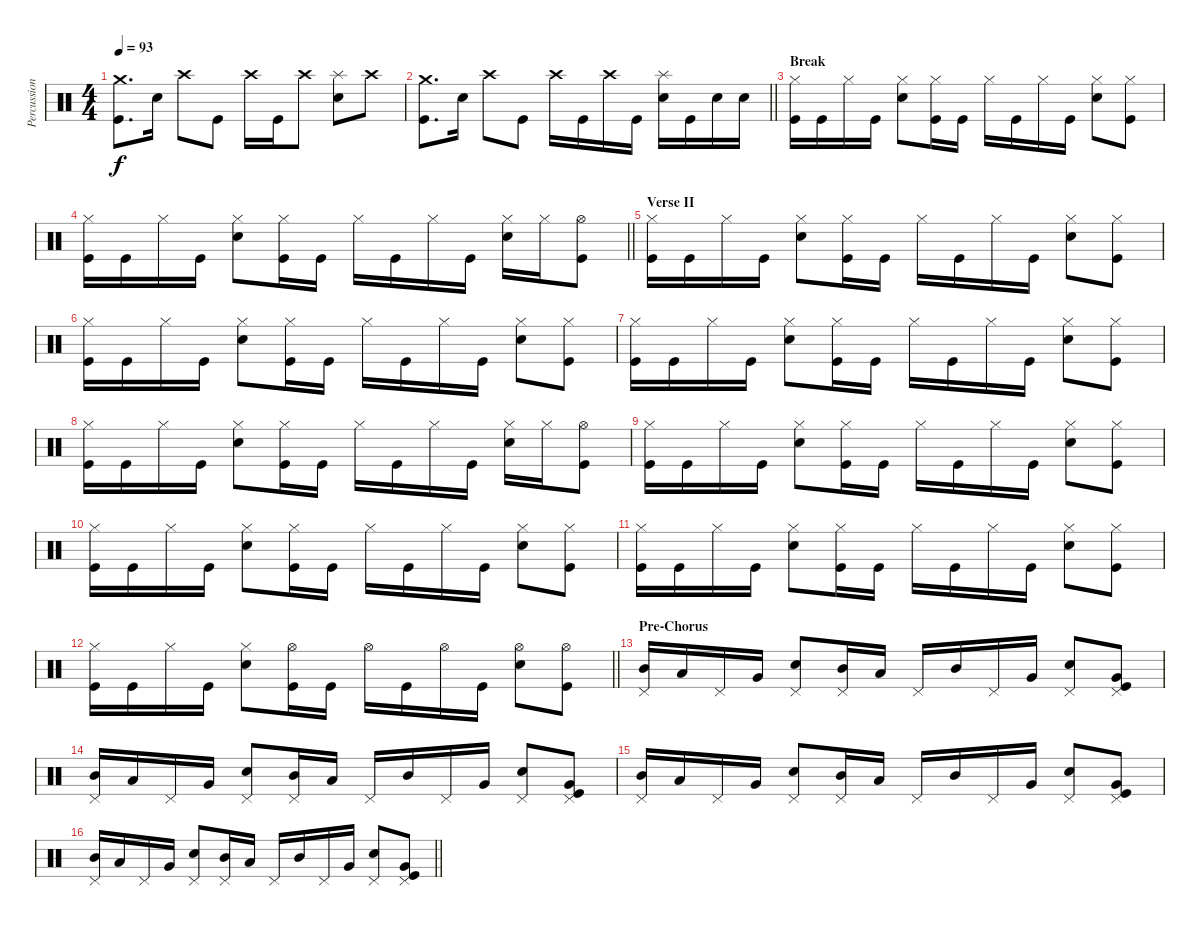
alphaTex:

\track ("Percussion" "Percussion") {instrument percussion}
\staff {score}
\articulation defaults
\ts (4 4)
\tempo 93
\clef neutral
\ks c
("Crash medium (hit)" "Kick (hit)").8{d dy f} "Electric Snare (hit)".16 "Crash high (hit)".8 "Kick (hit)".8 "Crash high (hit)".16 "Kick (hit)".16 "Crash high (hit)".8 ("Splash (hit)" "Electric Snare (hit)").8 "Crash high (hit)".8 |
\barLineRight lightlight
("Crash medium (hit)" "Kick (hit)").8{d} "Electric Snare (hit)".16 "Crash high (hit)".8 "Kick (hit)".8 "Crash high (hit)".16 "Kick (hit)".16 "Crash high (hit)".16 "Kick (hit)".16 ("Splash (hit)" "Electric Snare (hit)").16 "Kick (hit)".16 "Electric Snare (hit)".16 "Electric Snare (hit)".16 |
\section ("" "Break")
("Hi-Hat (closed)" "Kick (hit)").16 "Kick (hit)".16 "Hi-Hat (closed)".16 "Kick (hit)".16 ("Hi-Hat (closed)" "Electric Snare (hit)").8 ("Hi-Hat (closed)" "Kick (hit)").16 "Kick (hit)".16 "Hi-Hat (closed)".16 "Kick (hit)".16 "Hi-Hat (closed)".16 "Kick (hit)".16 ("Hi-Hat (closed)" "Electric Snare (hit)").8 ("Hi-Hat (closed)" "Kick (hit)").8 |
\barLineRight lightlight
("Hi-Hat (closed)" "Kick (hit)").16 "Kick (hit)".16 "Hi-Hat (closed)".16 "Kick (hit)".16 ("Hi-Hat (closed)" "Electric Snare (hit)").8 ("Hi-Hat (closed)" "Kick (hit)").16 "Kick (hit)".16 "Hi-Hat (closed)".16 "Kick (hit)".16 "Hi-Hat (closed)".16 "Kick (hit)".16 ("Hi-Hat (closed)" "Electric Snare (hit)").16 "Hi-Hat (closed)".16 ("Hi-Hat (open)" "Kick (hit)").8 |
\section ("" "Verse II")
("Hi-Hat (closed)" "Kick (hit)").16 "Kick (hit)".16 "Hi-Hat (closed)".16 "Kick (hit)".16 ("Hi-Hat (closed)" "Electric Snare (hit)").8 ("Hi-Hat (closed)" "Kick (hit)").16 "Kick (hit)".16 "Hi-Hat (closed)".16 "Kick (hit)".16 "Hi-Hat (closed)".16 "Kick (hit)".16 ("Hi-Hat (closed)" "Electric Snare (hit)").8 ("Hi-Hat (closed)" "Kick (hit)").8 |
("Hi-Hat (closed)" "Kick (hit)").16 "Kick (hit)".16 "Hi-Hat (closed)".16 "Kick (hit)".16 ("Hi-Hat (closed)" "Electric Snare (hit)").8 ("Hi-Hat (closed)" "Kick (hit)").16 "Kick (hit)".16 "Hi-Hat (closed)".16 "Kick (hit)".16 "Hi-Hat (closed)".16 "Kick (hit)".16 ("Hi-Hat (closed)" "Electric Snare (hit)").8 ("Hi-Hat (closed)" "Kick (hit)").8 |
("Hi-Hat (closed)" "Kick (hit)").16 "Kick (hit)".16 "Hi-Hat (closed)".16 "Kick (hit)".16 ("Hi-Hat (closed)" "Electric Snare (hit)").8 ("Hi-Hat (closed)" "Kick (hit)").16 "Kick (hit)".16 "Hi-Hat (closed)".16 "Kick (hit)".16 "Hi-Hat (closed)".16 "Kick (hit)".16 ("Hi-Hat (closed)" "Electric Snare (hit)").8 ("Hi-Hat (closed)" "Kick (hit)").8 |
("Hi-Hat (closed)" "Kick (hit)").16 "Kick (hit)".16 "Hi-Hat (closed)".16 "Kick (hit)".16 ("Hi-Hat (closed)" "Electric Snare (hit)").8 ("Hi-Hat (closed)" "Kick (hit)").16 "Kick (hit)".16 "Hi-Hat (closed)".16 "Kick (hit)".16 "Hi-Hat (closed)".16 "Kick (hit)".16 ("Hi-Hat (closed)" "Electric Snare (hit)").16 "Hi-Hat (closed)".16 ("Hi-Hat (open)" "Kick (hit)").8 |
("Hi-Hat (closed)" "Kick (hit)").16 "Kick (hit)".16 "Hi-Hat (closed)".16 "Kick (hit)".16 ("Hi-Hat (closed)" "Electric Snare (hit)").8 ("Hi-Hat (closed)" "Kick (hit)").16 "Kick (hit)".16 "Hi-Hat (closed)".16 "Kick (hit)".16 "Hi-Hat (closed)".16 "Kick (hit)".16 ("Hi-Hat (closed)" "Electric Snare (hit)").8 ("Hi-Hat (closed)" "Kick (hit)").8 |
("Hi-Hat (closed)" "Kick (hit)").16 "Kick (hit)".16 "Hi-Hat (closed)".16 "Kick (hit)".16 ("Hi-Hat (closed)" "Electric Snare (hit)").8 ("Hi-Hat (closed)" "Kick (hit)").16 "Kick (hit)".16 "Hi-Hat (closed)".16 "Kick (hit)".16 "Hi-Hat (closed)".16 "Kick (hit)".16 ("Hi-Hat (closed)" "Electric Snare (hit)").8 ("Hi-Hat (closed)" "Kick (hit)").8 |
("Hi-Hat (closed)" "Kick (hit)").16 "Kick (hit)".16 "Hi-Hat (closed)".16 "Kick (hit)".16 ("Hi-Hat (closed)" "Electric Snare (hit)").8 ("Hi-Hat (closed)" "Kick (hit)").16 "Kick (hit)".16 "Hi-Hat (closed)".16 "Kick (hit)".16 "Hi-Hat (closed)".16 "Kick (hit)".16 ("Hi-Hat (closed)" "Electric Snare (hit)").8 ("Hi-Hat (closed)" "Kick (hit)").8 |
\barLineRight lightlight
("Hi-Hat (closed)" "Kick (hit)").16 "Kick (hit)".16 "Hi-Hat (closed)".16 "Kick (hit)".16 ("Hi-Hat (closed)" "Electric Snare (hit)").8 ("Hi-Hat (open)" "Kick (hit)").16 "Kick (hit)".16 "Hi-Hat (open)".16 "Kick (hit)".16 "Hi-Hat (open)".16 "Kick (hit)".16 ("Hi-Hat (open)" "Electric Snare (hit)").8 ("Hi-Hat (open)" "Kick (hit)").8 |
\section ("" "Pre-Chorus")
("Pedal Hi-Hat (hit)" "Mid Tom (hit)").16 "Low Tom (hit)".16 "Pedal Hi-Hat (hit)".16 "Very Low Tom (hit)".16 ("Pedal Hi-Hat (hit)" "Electric Snare (hit)").8 ("Pedal Hi-Hat (hit)" "Mid Tom (hit)").16 "Low Tom (hit)".16 "Pedal Hi-Hat (hit)".16 "Mid Tom (hit)".16 "Pedal Hi-Hat (hit)".16 "Very Low Tom (hit)".16 ("Pedal Hi-Hat (hit)" "Electric Snare (hit)").8 ("Pedal Hi-Hat (hit)" "Very Low Tom (hit)" "Kick (hit)").8 |
("Pedal Hi-Hat (hit)" "Mid Tom (hit)").16 "Low Tom (hit)".16 "Pedal Hi-Hat (hit)".16 "Very Low Tom (hit)".16 ("Pedal Hi-Hat (hit)" "Electric Snare (hit)").8 ("Pedal Hi-Hat (hit)" "Mid Tom (hit)").16 "Low Tom (hit)".16 "Pedal Hi-Hat (hit)".16 "Mid Tom (hit)".16 "Pedal Hi-Hat (hit)".16 "Very Low Tom (hit)".16 ("Pedal Hi-Hat (hit)" "Electric Snare (hit)").8 ("Pedal Hi-Hat (hit)" "Very Low Tom (hit)" "Kick (hit)").8 |
("Pedal Hi-Hat (hit)" "Mid Tom (hit)").16 "Low Tom (hit)".16 "Pedal Hi-Hat (hit)".16 "Very Low Tom (hit)".16 ("Pedal Hi-Hat (hit)" "Electric Snare (hit)").8 ("Pedal Hi-Hat (hit)" "Mid Tom (hit)").16 "Low Tom (hit)".16 "Pedal Hi-Hat (hit)".16 "Mid Tom (hit)".16 "Pedal Hi-Hat (hit)".16 "Very Low Tom (hit)".16 ("Pedal Hi-Hat (hit)" "Electric Snare (hit)").8 ("Pedal Hi-Hat (hit)" "Very Low Tom (hit)" "Kick (hit)").8 |
\barLineRight lightlight
("Pedal Hi-Hat (hit)" "Mid Tom (hit)").16 "Low Tom (hit)".16 "Pedal Hi-Hat (hit)".16 "Very Low Tom (hit)".16 ("Pedal Hi-Hat (hit)" "Electric Snare (hit)").8 ("Pedal Hi-Hat (hit)" "Mid Tom (hit)").16 "Low Tom (hit)".16 "Pedal Hi-Hat (hit)".16 "Mid Tom (hit)".16 "Pedal Hi-Hat (hit)".16 "Very Low Tom (hit)".16 ("Pedal Hi-Hat (hit)" "Electric Snare (hit)").8 ("Pedal Hi-Hat (hit)" "Very Low Tom (hit)" "Kick (hit)").8
